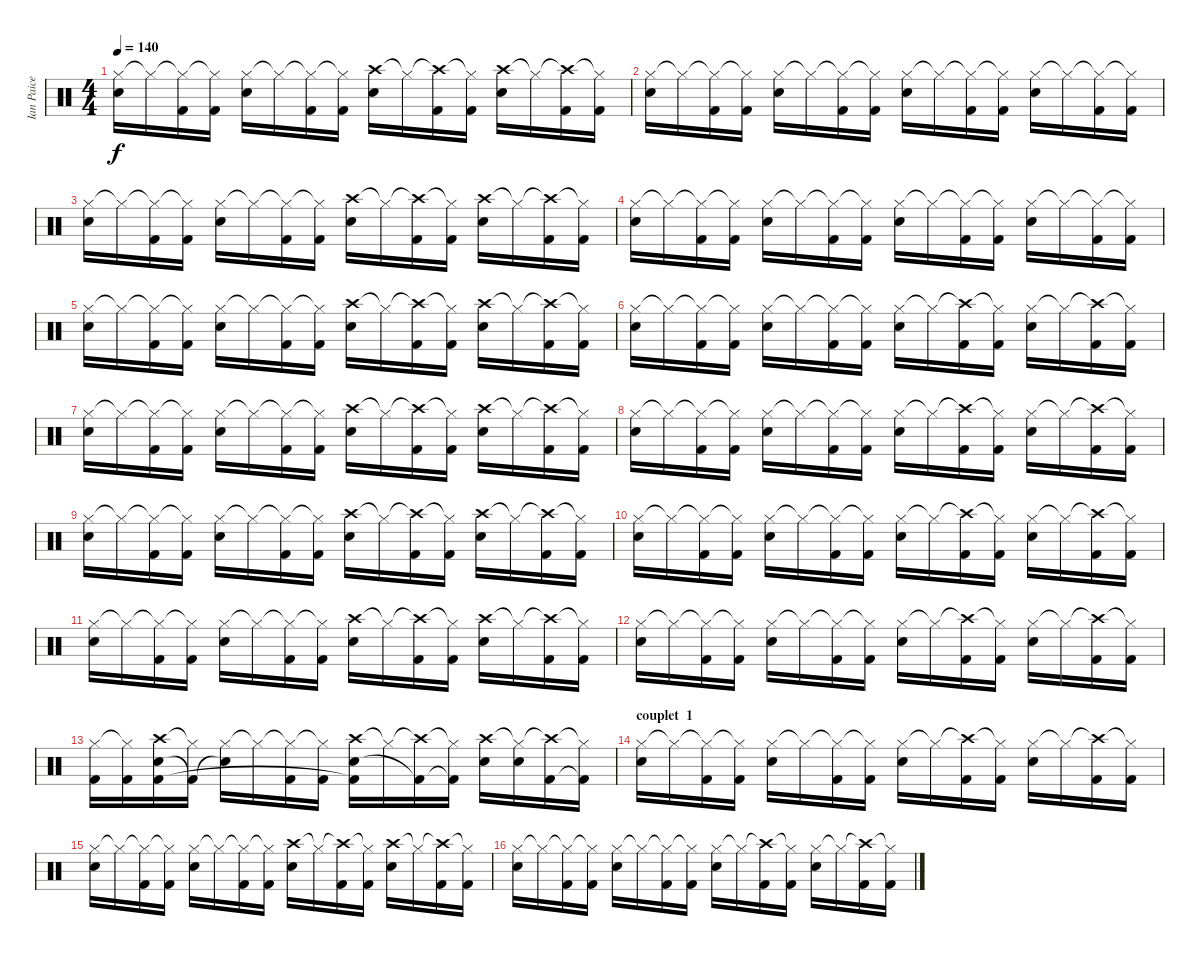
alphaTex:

\track ("Ian Paice" "Ian Paice") {instrument percussion}
\staff {score}
\articulation defaults
\ts (4 4)
\tempo 140
\clef neutral
\ks c
("Hi-Hat (closed)" "Snare (hit) 2").16{dy f} "Hi-Hat (closed)"{t}.16 ("Hi-Hat (closed)"{t} "Kick (hit) 2").16 ("Hi-Hat (closed)"{t} "Kick (hit) 2").16 ("Hi-Hat (closed)" "Snare (hit) 2").16 "Hi-Hat (closed)"{t}.16 ("Hi-Hat (closed)"{t} "Kick (hit) 2").16 ("Hi-Hat (closed)"{t} "Kick (hit) 2").16 ("Crash high (hit)" "Snare (hit) 2").16 "Hi-Hat (closed)"{t}.16 ("Crash high (hit)"{t} "Kick (hit) 2").16 ("Hi-Hat (closed)"{t} "Kick (hit) 2").16 ("Crash high (hit)" "Snare (hit) 2").16 "Hi-Hat (closed)"{t}.16 ("Crash high (hit)"{t} "Kick (hit) 2").16 ("Hi-Hat (closed)"{t} "Kick (hit) 2").16 |
("Hi-Hat (closed)" "Snare (hit) 2").16 "Hi-Hat (closed)"{t}.16 ("Hi-Hat (closed)"{t} "Kick (hit) 2").16 ("Hi-Hat (closed)"{t} "Kick (hit) 2").16 ("Hi-Hat (closed)" "Snare (hit) 2").16 "Hi-Hat (closed)"{t}.16 ("Hi-Hat (closed)"{t} "Kick (hit) 2").16 ("Hi-Hat (closed)"{t} "Kick (hit) 2").16 ("Hi-Hat (closed)" "Snare (hit) 2").16 "Hi-Hat (closed)"{t}.16 ("Hi-Hat (closed)"{t} "Kick (hit) 2").16 ("Hi-Hat (closed)"{t} "Kick (hit) 2").16 ("Hi-Hat (closed)" "Snare (hit) 2").16 "Hi-Hat (closed)"{t}.16 ("Hi-Hat (closed)"{t} "Kick (hit) 2").16 ("Hi-Hat (closed)"{t} "Kick (hit) 2").16 |
("Hi-Hat (closed)" "Snare (hit) 2").16 "Hi-Hat (closed)"{t}.16 ("Hi-Hat (closed)"{t} "Kick (hit) 2").16 ("Hi-Hat (closed)"{t} "Kick (hit) 2").16 ("Hi-Hat (closed)" "Snare (hit) 2").16 "Hi-Hat (closed)"{t}.16 ("Hi-Hat (closed)"{t} "Kick (hit) 2").16 ("Hi-Hat (closed)"{t} "Kick (hit) 2").16 ("Crash high (hit)" "Snare (hit) 2").16 "Hi-Hat (closed)"{t}.16 ("Crash high (hit)"{t} "Kick (hit) 2").16 ("Hi-Hat (closed)"{t} "Kick (hit) 2").16 ("Crash high (hit)" "Snare (hit) 2").16 "Hi-Hat (closed)"{t}.16 ("Crash high (hit)"{t} "Kick (hit) 2").16 ("Hi-Hat (closed)"{t} "Kick (hit) 2").16 |
("Hi-Hat (closed)" "Snare (hit) 2").16 "Hi-Hat (closed)"{t}.16 ("Hi-Hat (closed)"{t} "Kick (hit) 2").16 ("Hi-Hat (closed)"{t} "Kick (hit) 2").16 ("Hi-Hat (closed)" "Snare (hit) 2").16 "Hi-Hat (closed)"{t}.16 ("Hi-Hat (closed)"{t} "Kick (hit) 2").16 ("Hi-Hat (closed)"{t} "Kick (hit) 2").16 ("Hi-Hat (closed)" "Snare (hit) 2").16 "Hi-Hat (closed)"{t}.16 ("Hi-Hat (closed)"{t} "Kick (hit) 2").16 ("Hi-Hat (closed)"{t} "Kick (hit) 2").16 ("Hi-Hat (closed)" "Snare (hit) 2").16 "Hi-Hat (closed)"{t}.16 ("Hi-Hat (closed)"{t} "Kick (hit) 2").16 ("Hi-Hat (closed)"{t} "Kick (hit) 2").16 |
("Hi-Hat (closed)" "Snare (hit) 2").16 "Hi-Hat (closed)"{t}.16 ("Hi-Hat (closed)"{t} "Kick (hit) 2").16 ("Hi-Hat (closed)"{t} "Kick (hit) 2").16 ("Hi-Hat (closed)" "Snare (hit) 2").16 "Hi-Hat (closed)"{t}.16 ("Hi-Hat (closed)"{t} "Kick (hit) 2").16 ("Hi-Hat (closed)"{t} "Kick (hit) 2").16 ("Crash high (hit)" "Snare (hit) 2").16 "Hi-Hat (closed)"{t}.16 ("Crash high (hit)"{t} "Kick (hit) 2").16 ("Hi-Hat (closed)"{t} "Kick (hit) 2").16 ("Crash high (hit)" "Snare (hit) 2").16 "Hi-Hat (closed)"{t}.16 ("Crash high (hit)"{t} "Kick (hit) 2").16 ("Hi-Hat (closed)"{t} "Kick (hit) 2").16 |
("Hi-Hat (closed)" "Snare (hit) 2").16 "Hi-Hat (closed)"{t}.16 ("Hi-Hat (closed)"{t} "Kick (hit) 2").16 ("Hi-Hat (closed)"{t} "Kick (hit) 2").16 ("Hi-Hat (closed)" "Snare (hit) 2").16 "Hi-Hat (closed)"{t}.16 ("Hi-Hat (closed)"{t} "Kick (hit) 2").16 ("Hi-Hat (closed)"{t} "Kick (hit) 2").16 ("Hi-Hat (closed)" "Snare (hit) 2").16 "Hi-Hat (closed)"{t}.16 ("Crash high (hit)"{t} "Kick (hit) 2").16 ("Hi-Hat (closed)"{t} "Kick (hit) 2").16 ("Hi-Hat (closed)" "Snare (hit) 2").16 "Hi-Hat (closed)"{t}.16 ("Crash high (hit)"{t} "Kick (hit) 2").16 ("Hi-Hat (closed)"{t} "Kick (hit) 2").16 |
("Hi-Hat (closed)" "Snare (hit) 2").16 "Hi-Hat (closed)"{t}.16 ("Hi-Hat (closed)"{t} "Kick (hit) 2").16 ("Hi-Hat (closed)"{t} "Kick (hit) 2").16 ("Hi-Hat (closed)" "Snare (hit) 2").16 "Hi-Hat (closed)"{t}.16 ("Hi-Hat (closed)"{t} "Kick (hit) 2").16 ("Hi-Hat (closed)"{t} "Kick (hit) 2").16 ("Crash high (hit)" "Snare (hit) 2").16 "Hi-Hat (closed)"{t}.16 ("Crash high (hit)"{t} "Kick (hit) 2").16 ("Hi-Hat (closed)"{t} "Kick (hit) 2").16 ("Crash high (hit)" "Snare (hit) 2").16 "Hi-Hat (closed)"{t}.16 ("Crash high (hit)"{t} "Kick (hit) 2").16 ("Hi-Hat (closed)"{t} "Kick (hit) 2").16 |
("Hi-Hat (closed)" "Snare (hit) 2").16 "Hi-Hat (closed)"{t}.16 ("Hi-Hat (closed)"{t} "Kick (hit) 2").16 ("Hi-Hat (closed)"{t} "Kick (hit) 2").16 ("Hi-Hat (closed)" "Snare (hit) 2").16 "Hi-Hat (closed)"{t}.16 ("Hi-Hat (closed)"{t} "Kick (hit) 2").16 ("Hi-Hat (closed)"{t} "Kick (hit) 2").16 ("Hi-Hat (closed)" "Snare (hit) 2").16 "Hi-Hat (closed)"{t}.16 ("Crash high (hit)"{t} "Kick (hit) 2").16 ("Hi-Hat (closed)"{t} "Kick (hit) 2").16 ("Hi-Hat (closed)" "Snare (hit) 2").16 "Hi-Hat (closed)"{t}.16 ("Crash high (hit)"{t} "Kick (hit) 2").16 ("Hi-Hat (closed)"{t} "Kick (hit) 2").16 |
("Hi-Hat (closed)" "Snare (hit) 2").16 "Hi-Hat (closed)"{t}.16 ("Hi-Hat (closed)"{t} "Kick (hit) 2").16 ("Hi-Hat (closed)"{t} "Kick (hit) 2").16 ("Hi-Hat (closed)" "Snare (hit) 2").16 "Hi-Hat (closed)"{t}.16 ("Hi-Hat (closed)"{t} "Kick (hit) 2").16 ("Hi-Hat (closed)"{t} "Kick (hit) 2").16 ("Crash high (hit)" "Snare (hit) 2").16 "Hi-Hat (closed)"{t}.16 ("Crash high (hit)"{t} "Kick (hit) 2").16 ("Hi-Hat (closed)"{t} "Kick (hit) 2").16 ("Crash high (hit)" "Snare (hit) 2").16 "Hi-Hat (closed)"{t}.16 ("Crash high (hit)"{t} "Kick (hit) 2").16 ("Hi-Hat (closed)"{t} "Kick (hit) 2").16 |
("Hi-Hat (closed)" "Snare (hit) 2").16 "Hi-Hat (closed)"{t}.16 ("Hi-Hat (closed)"{t} "Kick (hit) 2").16 ("Hi-Hat (closed)"{t} "Kick (hit) 2").16 ("Hi-Hat (closed)" "Snare (hit) 2").16 "Hi-Hat (closed)"{t}.16 ("Hi-Hat (closed)"{t} "Kick (hit) 2").16 ("Hi-Hat (closed)"{t} "Kick (hit) 2").16 ("Hi-Hat (closed)" "Snare (hit) 2").16 "Hi-Hat (closed)"{t}.16 ("Crash high (hit)"{t} "Kick (hit) 2").16 ("Hi-Hat (closed)"{t} "Kick (hit) 2").16 ("Hi-Hat (closed)" "Snare (hit) 2").16 "Hi-Hat (closed)"{t}.16 ("Crash high (hit)"{t} "Kick (hit) 2").16 ("Hi-Hat (closed)"{t} "Kick (hit) 2").16 |
("Hi-Hat (closed)" "Snare (hit) 2").16 "Hi-Hat (closed)"{t}.16 ("Hi-Hat (closed)"{t} "Kick (hit) 2").16 ("Hi-Hat (closed)"{t} "Kick (hit) 2").16 ("Hi-Hat (closed)" "Snare (hit) 2").16 "Hi-Hat (closed)"{t}.16 ("Hi-Hat (closed)"{t} "Kick (hit) 2").16 ("Hi-Hat (closed)"{t} "Kick (hit) 2").16 ("Crash high (hit)" "Snare (hit) 2").16 "Hi-Hat (closed)"{t}.16 ("Crash high (hit)"{t} "Kick (hit) 2").16 ("Hi-Hat (closed)"{t} "Kick (hit) 2").16 ("Crash high (hit)" "Snare (hit) 2").16 "Hi-Hat (closed)"{t}.16 ("Crash high (hit)"{t} "Kick (hit) 2").16 ("Hi-Hat (closed)"{t} "Kick (hit) 2").16 |
("Hi-Hat (closed)" "Snare (hit) 2").16 "Hi-Hat (closed)"{t}.16 ("Hi-Hat (closed)"{t} "Kick (hit) 2").16 ("Hi-Hat (closed)"{t} "Kick (hit) 2").16 ("Hi-Hat (closed)" "Snare (hit) 2").16 "Hi-Hat (closed)"{t}.16 ("Hi-Hat (closed)"{t} "Kick (hit) 2").16 ("Hi-Hat (closed)"{t} "Kick (hit) 2").16 ("Hi-Hat (closed)" "Snare (hit) 2").16 "Hi-Hat (closed)"{t}.16 ("Crash high (hit)"{t} "Kick (hit) 2").16 ("Hi-Hat (closed)"{t} "Kick (hit) 2").16 ("Hi-Hat (closed)" "Snare (hit) 2").16 "Hi-Hat (closed)"{t}.16 ("Crash high (hit)"{t} "Kick (hit) 2").16 ("Hi-Hat (closed)"{t} "Kick (hit) 2").16 |
("Hi-Hat (closed)" "Kick (hit) 2").16 ("Hi-Hat (closed)"{t} "Kick (hit) 2").16 ("Crash high (hit)" "Snare (hit) 2" "Kick (hit) 2").16 ("Hi-Hat (closed)"{t} "Kick (hit) 2"{t}).16 ("Hi-Hat (closed)" "Snare (hit) 2"{t}).16 "Hi-Hat (closed)"{t}.16 ("Hi-Hat (closed)"{t} "Kick (hit) 2").16 ("Hi-Hat (closed)"{t} "Kick (hit) 2").16 ("Crash high (hit)" "Snare (hit) 2" "Kick (hit) 2"{t}).16 "Hi-Hat (closed)"{t}.16 ("Crash high (hit)"{t} "Kick (hit) 2"{t}).16 ("Hi-Hat (closed)"{t} "Kick (hit) 2"{t}).16 ("Crash high (hit)" "Snare (hit) 2").16 ("Hi-Hat (closed)"{t} "Snare (hit) 2").16 ("Crash high (hit)"{t} "Kick (hit) 2").16 ("Hi-Hat (closed)"{t} "Kick (hit) 2"{t}).16 |
\section ("" "couplet  1")
("Hi-Hat (closed)" "Snare (hit) 2").16 "Hi-Hat (closed)"{t}.16 ("Hi-Hat (closed)"{t} "Kick (hit) 2").16 ("Hi-Hat (closed)"{t} "Kick (hit) 2").16 ("Hi-Hat (closed)" "Snare (hit) 2").16 "Hi-Hat (closed)"{t}.16 ("Hi-Hat (closed)"{t} "Kick (hit) 2").16 ("Hi-Hat (closed)"{t} "Kick (hit) 2").16 ("Hi-Hat (closed)" "Snare (hit) 2").16 "Hi-Hat (closed)"{t}.16 ("Crash high (hit)"{t} "Kick (hit) 2").16 ("Hi-Hat (closed)"{t} "Kick (hit) 2").16 ("Hi-Hat (closed)" "Snare (hit) 2").16 "Hi-Hat (closed)"{t}.16 ("Crash high (hit)"{t} "Kick (hit) 2").16 ("Hi-Hat (closed)"{t} "Kick (hit) 2").16 |
("Hi-Hat (closed)" "Snare (hit) 2").16 "Hi-Hat (closed)"{t}.16 ("Hi-Hat (closed)"{t} "Kick (hit) 2").16 ("Hi-Hat (closed)"{t} "Kick (hit) 2").16 ("Hi-Hat (closed)" "Snare (hit) 2").16 "Hi-Hat (closed)"{t}.16 ("Hi-Hat (closed)"{t} "Kick (hit) 2").16 ("Hi-Hat (closed)"{t} "Kick (hit) 2").16 ("Crash high (hit)" "Snare (hit) 2").16 "Hi-Hat (closed)"{t}.16 ("Crash high (hit)"{t} "Kick (hit) 2").16 ("Hi-Hat (closed)"{t} "Kick (hit) 2").16 ("Crash high (hit)" "Snare (hit) 2").16 "Hi-Hat (closed)"{t}.16 ("Crash high (hit)"{t} "Kick (hit) 2").16 ("Hi-Hat (closed)"{t} "Kick (hit) 2").16 |
("Hi-Hat (closed)" "Snare (hit) 2").16 "Hi-Hat (closed)"{t}.16 ("Hi-Hat (closed)"{t} "Kick (hit) 2").16 ("Hi-Hat (closed)"{t} "Kick (hit) 2").16 ("Hi-Hat (closed)" "Snare (hit) 2").16 "Hi-Hat (closed)"{t}.16 ("Hi-Hat (closed)"{t} "Kick (hit) 2").16 ("Hi-Hat (closed)"{t} "Kick (hit) 2").16 ("Hi-Hat (closed)" "Snare (hit) 2").16 "Hi-Hat (closed)"{t}.16 ("Crash high (hit)"{t} "Kick (hit) 2").16 ("Hi-Hat (closed)"{t} "Kick (hit) 2").16 ("Hi-Hat (closed)" "Snare (hit) 2").16 "Hi-Hat (closed)"{t}.16 ("Crash high (hit)"{t} "Kick (hit) 2").16 ("Hi-Hat (closed)"{t} "Kick (hit) 2").16
